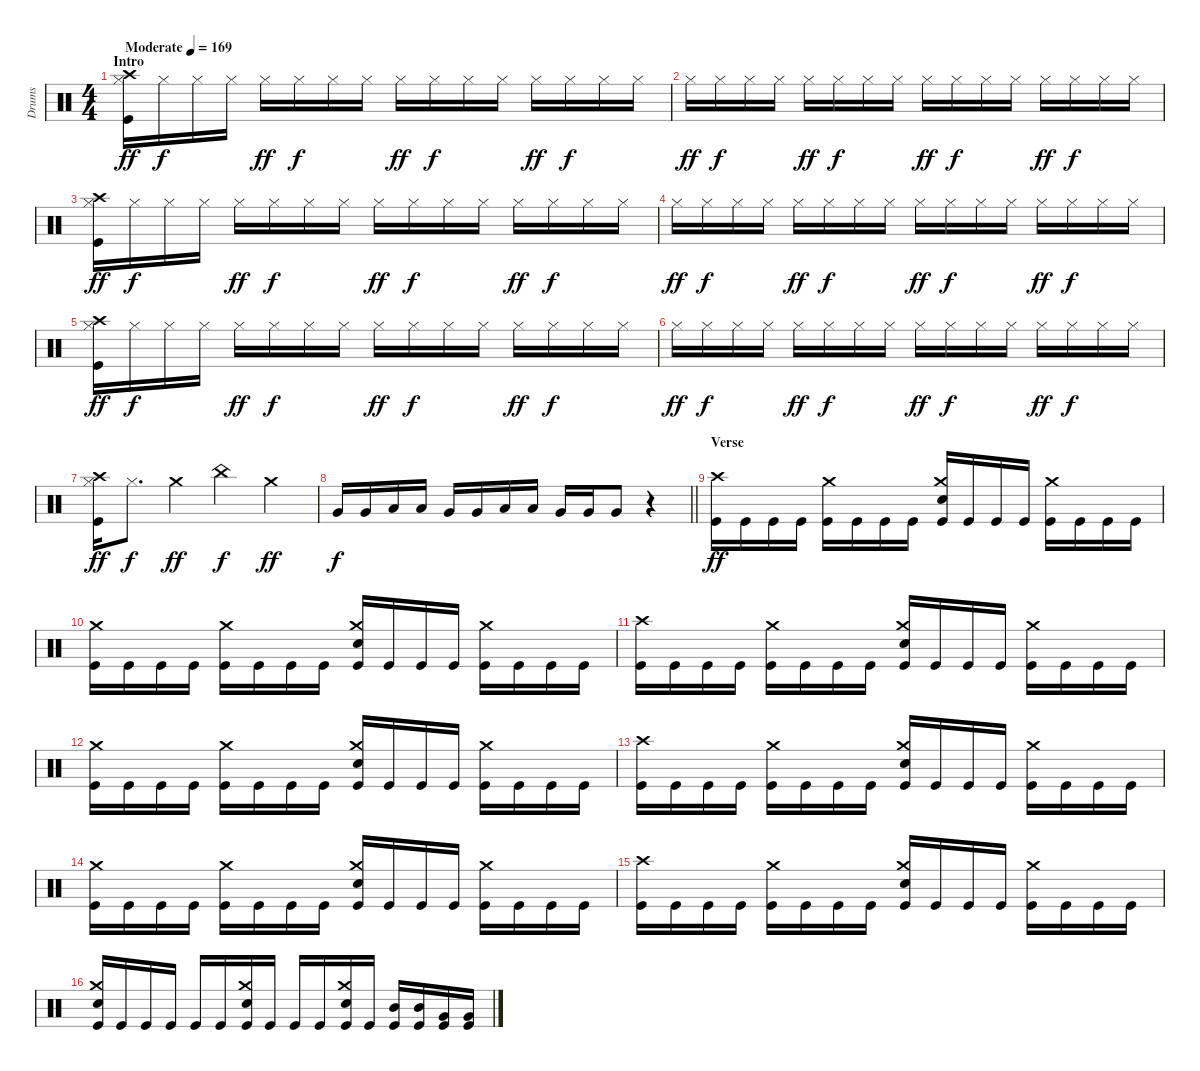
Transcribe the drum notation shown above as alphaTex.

\track ("Drums" "Drums") {instrument percussion}
\staff {score}
\articulation defaults
\ts (4 4)
\section ("" "Intro")
\tempo (169 "Moderate")
\clef neutral
\ks c
("Crash high (hit)" "Hi-Hat (closed)" "Kick (hit)").16{dy ff} "Hi-Hat (closed)".16{dy f} "Hi-Hat (closed)".16 "Hi-Hat (closed)".16 "Hi-Hat (closed)".16{dy ff} "Hi-Hat (closed)".16{dy f} "Hi-Hat (closed)".16 "Hi-Hat (closed)".16 "Hi-Hat (closed)".16{dy ff} "Hi-Hat (closed)".16{dy f} "Hi-Hat (closed)".16 "Hi-Hat (closed)".16 "Hi-Hat (closed)".16{dy ff} "Hi-Hat (closed)".16{dy f} "Hi-Hat (closed)".16 "Hi-Hat (closed)".16 |
"Hi-Hat (closed)".16{dy ff} "Hi-Hat (closed)".16{dy f} "Hi-Hat (closed)".16 "Hi-Hat (closed)".16 "Hi-Hat (closed)".16{dy ff} "Hi-Hat (closed)".16{dy f} "Hi-Hat (closed)".16 "Hi-Hat (closed)".16 "Hi-Hat (closed)".16{dy ff} "Hi-Hat (closed)".16{dy f} "Hi-Hat (closed)".16 "Hi-Hat (closed)".16 "Hi-Hat (closed)".16{dy ff} "Hi-Hat (closed)".16{dy f} "Hi-Hat (closed)".16 "Hi-Hat (closed)".16 |
("Crash high (hit)" "Hi-Hat (closed)" "Kick (hit)").16{dy ff} "Hi-Hat (closed)".16{dy f} "Hi-Hat (closed)".16 "Hi-Hat (closed)".16 "Hi-Hat (closed)".16{dy ff} "Hi-Hat (closed)".16{dy f} "Hi-Hat (closed)".16 "Hi-Hat (closed)".16 "Hi-Hat (closed)".16{dy ff} "Hi-Hat (closed)".16{dy f} "Hi-Hat (closed)".16 "Hi-Hat (closed)".16 "Hi-Hat (closed)".16{dy ff} "Hi-Hat (closed)".16{dy f} "Hi-Hat (closed)".16 "Hi-Hat (closed)".16 |
"Hi-Hat (closed)".16{dy ff} "Hi-Hat (closed)".16{dy f} "Hi-Hat (closed)".16 "Hi-Hat (closed)".16 "Hi-Hat (closed)".16{dy ff} "Hi-Hat (closed)".16{dy f} "Hi-Hat (closed)".16 "Hi-Hat (closed)".16 "Hi-Hat (closed)".16{dy ff} "Hi-Hat (closed)".16{dy f} "Hi-Hat (closed)".16 "Hi-Hat (closed)".16 "Hi-Hat (closed)".16{dy ff} "Hi-Hat (closed)".16{dy f} "Hi-Hat (closed)".16 "Hi-Hat (closed)".16 |
("Crash high (hit)" "Hi-Hat (closed)" "Kick (hit)").16{dy ff} "Hi-Hat (closed)".16{dy f} "Hi-Hat (closed)".16 "Hi-Hat (closed)".16 "Hi-Hat (closed)".16{dy ff} "Hi-Hat (closed)".16{dy f} "Hi-Hat (closed)".16 "Hi-Hat (closed)".16 "Hi-Hat (closed)".16{dy ff} "Hi-Hat (closed)".16{dy f} "Hi-Hat (closed)".16 "Hi-Hat (closed)".16 "Hi-Hat (closed)".16{dy ff} "Hi-Hat (closed)".16{dy f} "Hi-Hat (closed)".16 "Hi-Hat (closed)".16 |
"Hi-Hat (closed)".16{dy ff} "Hi-Hat (closed)".16{dy f} "Hi-Hat (closed)".16 "Hi-Hat (closed)".16 "Hi-Hat (closed)".16{dy ff} "Hi-Hat (closed)".16{dy f} "Hi-Hat (closed)".16 "Hi-Hat (closed)".16 "Hi-Hat (closed)".16{dy ff} "Hi-Hat (closed)".16{dy f} "Hi-Hat (closed)".16 "Hi-Hat (closed)".16 "Hi-Hat (closed)".16{dy ff} "Hi-Hat (closed)".16{dy f} "Hi-Hat (closed)".16 "Hi-Hat (closed)".16 |
("Crash high (hit)" "Hi-Hat (closed)" "Kick (hit)").16{dy ff} "Hi-Hat (closed)".8{d dy f} "Crash medium (hit)".4{dy ff} "China (hit)".4{dy f} "Crash medium (hit)".4{dy ff} |
\barLineRight lightlight "Very Low Tom (hit)".16{dy f} "Very Low Tom (hit)".16 "Low Floor Tom (hit)".16 "Low Floor Tom (hit)".16 "Very Low Tom (hit)".16 "Very Low Tom (hit)".16 "Low Floor Tom (hit)".16 "Low Floor Tom (hit)".16 "Very Low Tom (hit)".16 "Very Low Tom (hit)".16 "Very Low Tom (hit)".8
r.4 |
\section ("" "Verse")
("Crash high (hit)" "Kick (hit)").16{dy ff} "Kick (hit)".16 "Kick (hit)".16 "Kick (hit)".16 ("Crash medium (hit)" "Kick (hit)").16 "Kick (hit)".16 "Kick (hit)".16 "Kick (hit)".16 ("Crash medium (hit)" "Electric Snare (hit)" "Kick (hit)").16 "Kick (hit)".16 "Kick (hit)".16 "Kick (hit)".16 ("Crash medium (hit)" "Kick (hit)").16 "Kick (hit)".16 "Kick (hit)".16 "Kick (hit)".16 |
("Crash medium (hit)" "Kick (hit)").16 "Kick (hit)".16 "Kick (hit)".16 "Kick (hit)".16 ("Crash medium (hit)" "Kick (hit)").16 "Kick (hit)".16 "Kick (hit)".16 "Kick (hit)".16 ("Crash medium (hit)" "Electric Snare (hit)" "Kick (hit)").16 "Kick (hit)".16 "Kick (hit)".16 "Kick (hit)".16 ("Crash medium (hit)" "Kick (hit)").16 "Kick (hit)".16 "Kick (hit)".16 "Kick (hit)".16 |
("Crash high (hit)" "Kick (hit)").16 "Kick (hit)".16 "Kick (hit)".16 "Kick (hit)".16 ("Crash medium (hit)" "Kick (hit)").16 "Kick (hit)".16 "Kick (hit)".16 "Kick (hit)".16 ("Crash medium (hit)" "Electric Snare (hit)" "Kick (hit)").16 "Kick (hit)".16 "Kick (hit)".16 "Kick (hit)".16 ("Crash medium (hit)" "Kick (hit)").16 "Kick (hit)".16 "Kick (hit)".16 "Kick (hit)".16 |
("Crash medium (hit)" "Kick (hit)").16 "Kick (hit)".16 "Kick (hit)".16 "Kick (hit)".16 ("Crash medium (hit)" "Kick (hit)").16 "Kick (hit)".16 "Kick (hit)".16 "Kick (hit)".16 ("Crash medium (hit)" "Electric Snare (hit)" "Kick (hit)").16 "Kick (hit)".16 "Kick (hit)".16 "Kick (hit)".16 ("Crash medium (hit)" "Kick (hit)").16 "Kick (hit)".16 "Kick (hit)".16 "Kick (hit)".16 |
("Crash high (hit)" "Kick (hit)").16 "Kick (hit)".16 "Kick (hit)".16 "Kick (hit)".16 ("Crash medium (hit)" "Kick (hit)").16 "Kick (hit)".16 "Kick (hit)".16 "Kick (hit)".16 ("Crash medium (hit)" "Electric Snare (hit)" "Kick (hit)").16 "Kick (hit)".16 "Kick (hit)".16 "Kick (hit)".16 ("Crash medium (hit)" "Kick (hit)").16 "Kick (hit)".16 "Kick (hit)".16 "Kick (hit)".16 |
("Crash medium (hit)" "Kick (hit)").16 "Kick (hit)".16 "Kick (hit)".16 "Kick (hit)".16 ("Crash medium (hit)" "Kick (hit)").16 "Kick (hit)".16 "Kick (hit)".16 "Kick (hit)".16 ("Crash medium (hit)" "Electric Snare (hit)" "Kick (hit)").16 "Kick (hit)".16 "Kick (hit)".16 "Kick (hit)".16 ("Crash medium (hit)" "Kick (hit)").16 "Kick (hit)".16 "Kick (hit)".16 "Kick (hit)".16 |
("Crash high (hit)" "Kick (hit)").16 "Kick (hit)".16 "Kick (hit)".16 "Kick (hit)".16 ("Crash medium (hit)" "Kick (hit)").16 "Kick (hit)".16 "Kick (hit)".16 "Kick (hit)".16 ("Crash medium (hit)" "Electric Snare (hit)" "Kick (hit)").16 "Kick (hit)".16 "Kick (hit)".16 "Kick (hit)".16 ("Crash medium (hit)" "Kick (hit)").16 "Kick (hit)".16 "Kick (hit)".16 "Kick (hit)".16 |
("Crash medium (hit)" "Electric Snare (hit)" "Kick (hit)").16 "Kick (hit)".16 "Kick (hit)".16 "Kick (hit)".16 "Kick (hit)".16 "Kick (hit)".16 ("Crash medium (hit)" "Electric Snare (hit)" "Kick (hit)").16 "Kick (hit)".16 "Kick (hit)".16 "Kick (hit)".16 ("Crash medium (hit)" "Electric Snare (hit)" "Kick (hit)").16 "Kick (hit)".16 ("Mid Tom (hit)" "Kick (hit)").16 ("Mid Tom (hit)" "Kick (hit)").16 ("Very Low Tom (hit)" "Kick (hit)").16 ("Very Low Tom (hit)" "Kick (hit)").16
